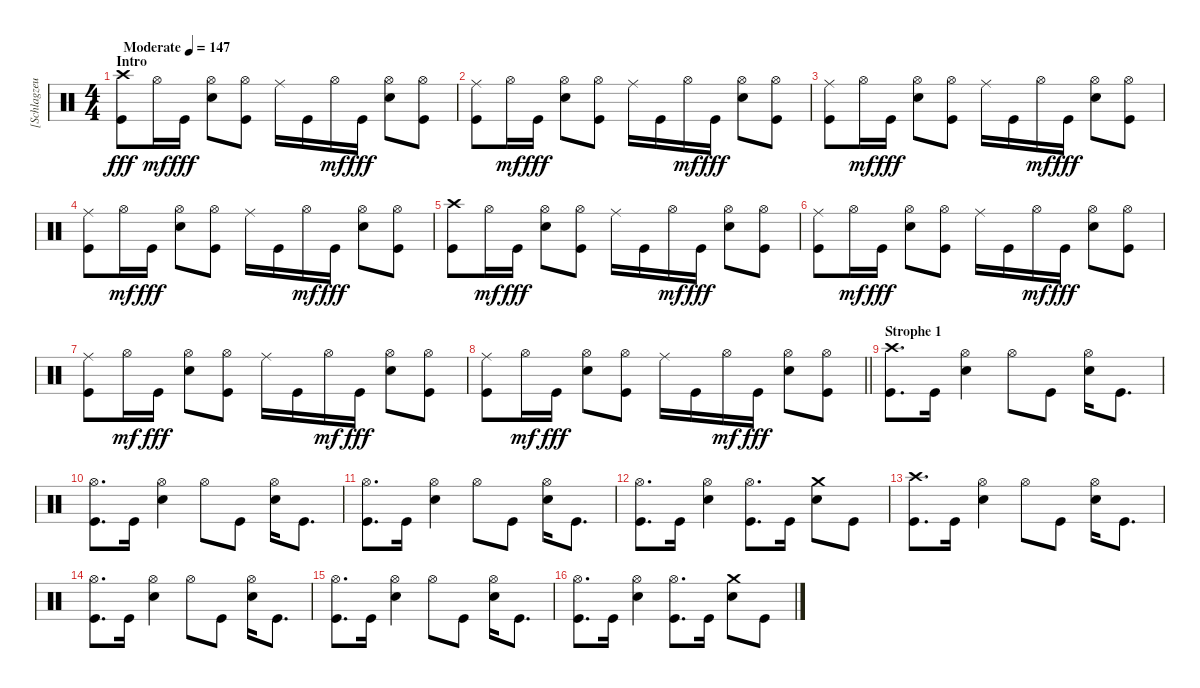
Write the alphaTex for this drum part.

\track ("[Schlagzeug]" "[Schlagzeu") {instrument percussion}
\staff {score}
\articulation defaults
\ts (4 4)
\section ("" "Intro")
\tempo (147 "Moderate")
\clef neutral
\ks c
("Crash high (hit)" "Kick (hit)").8{dy fff} "Hi-Hat (open)".16{dy mf} "Kick (hit)".16{dy fff} ("Hi-Hat (open)" "Electric Snare (hit)").8 ("Hi-Hat (open)" "Kick (hit)").8 "Ride (middle)".16 "Kick (hit)".16 "Hi-Hat (open)".16{dy mf} "Kick (hit)".16{dy fff} ("Hi-Hat (open)" "Electric Snare (hit)").8 ("Hi-Hat (open)" "Kick (hit)").8 |
("Ride (middle)" "Kick (hit)").8 "Hi-Hat (open)".16{dy mf} "Kick (hit)".16{dy fff} ("Hi-Hat (open)" "Electric Snare (hit)").8 ("Hi-Hat (open)" "Kick (hit)").8 "Ride (middle)".16 "Kick (hit)".16 "Hi-Hat (open)".16{dy mf} "Kick (hit)".16{dy fff} ("Hi-Hat (open)" "Electric Snare (hit)").8 ("Hi-Hat (open)" "Kick (hit)").8 |
("Ride (middle)" "Kick (hit)").8 "Hi-Hat (open)".16{dy mf} "Kick (hit)".16{dy fff} ("Hi-Hat (open)" "Electric Snare (hit)").8 ("Hi-Hat (open)" "Kick (hit)").8 "Ride (middle)".16 "Kick (hit)".16 "Hi-Hat (open)".16{dy mf} "Kick (hit)".16{dy fff} ("Hi-Hat (open)" "Electric Snare (hit)").8 ("Hi-Hat (open)" "Kick (hit)").8 |
("Ride (middle)" "Kick (hit)").8 "Hi-Hat (open)".16{dy mf} "Kick (hit)".16{dy fff} ("Hi-Hat (open)" "Electric Snare (hit)").8 ("Hi-Hat (open)" "Kick (hit)").8 "Ride (middle)".16 "Kick (hit)".16 "Hi-Hat (open)".16{dy mf} "Kick (hit)".16{dy fff} ("Hi-Hat (open)" "Electric Snare (hit)").8 ("Hi-Hat (open)" "Kick (hit)").8 |
("Crash high (hit)" "Kick (hit)").8 "Hi-Hat (open)".16{dy mf} "Kick (hit)".16{dy fff} ("Hi-Hat (open)" "Electric Snare (hit)").8 ("Hi-Hat (open)" "Kick (hit)").8 "Ride (middle)".16 "Kick (hit)".16 "Hi-Hat (open)".16{dy mf} "Kick (hit)".16{dy fff} ("Hi-Hat (open)" "Electric Snare (hit)").8 ("Hi-Hat (open)" "Kick (hit)").8 |
("Ride (middle)" "Kick (hit)").8 "Hi-Hat (open)".16{dy mf} "Kick (hit)".16{dy fff} ("Hi-Hat (open)" "Electric Snare (hit)").8 ("Hi-Hat (open)" "Kick (hit)").8 "Ride (middle)".16 "Kick (hit)".16 "Hi-Hat (open)".16{dy mf} "Kick (hit)".16{dy fff} ("Hi-Hat (open)" "Electric Snare (hit)").8 ("Hi-Hat (open)" "Kick (hit)").8 |
("Ride (middle)" "Kick (hit)").8 "Hi-Hat (open)".16{dy mf} "Kick (hit)".16{dy fff} ("Hi-Hat (open)" "Electric Snare (hit)").8 ("Hi-Hat (open)" "Kick (hit)").8 "Ride (middle)".16 "Kick (hit)".16 "Hi-Hat (open)".16{dy mf} "Kick (hit)".16{dy fff} ("Hi-Hat (open)" "Electric Snare (hit)").8 ("Hi-Hat (open)" "Kick (hit)").8 |
\barLineRight lightlight
("Ride (middle)" "Kick (hit)").8 "Hi-Hat (open)".16{dy mf} "Kick (hit)".16{dy fff} ("Hi-Hat (open)" "Electric Snare (hit)").8 ("Hi-Hat (open)" "Kick (hit)").8 "Ride (middle)".16 "Kick (hit)".16 "Hi-Hat (open)".16{dy mf} "Kick (hit)".16{dy fff} ("Hi-Hat (open)" "Electric Snare (hit)").8 ("Hi-Hat (open)" "Kick (hit)").8 |
\section ("" "Strophe 1")
("Crash high (hit)" "Kick (hit)").8{d} "Kick (hit)".16 ("Hi-Hat (open)" "Electric Snare (hit)").4 "Hi-Hat (open)".8 "Kick (hit)".8 ("Hi-Hat (open)" "Electric Snare (hit)").16 "Kick (hit)".8{d} |
("Hi-Hat (open)" "Kick (hit)").8{d} "Kick (hit)".16 ("Hi-Hat (open)" "Electric Snare (hit)").4 "Hi-Hat (open)".8 "Kick (hit)".8 ("Hi-Hat (open)" "Electric Snare (hit)").16 "Kick (hit)".8{d} |
("Hi-Hat (open)" "Kick (hit)").8{d} "Kick (hit)".16 ("Hi-Hat (open)" "Electric Snare (hit)").4 "Hi-Hat (open)".8 "Kick (hit)".8 ("Hi-Hat (open)" "Electric Snare (hit)").16 "Kick (hit)".8{d} |
("Hi-Hat (open)" "Kick (hit)").8{d} "Kick (hit)".16 ("Hi-Hat (open)" "Electric Snare (hit)").4 ("Hi-Hat (open)" "Kick (hit)").8{d} "Kick (hit)".16 ("Crash medium (hit)" "Electric Snare (hit)").8 "Kick (hit)".8 |
("Crash high (hit)" "Kick (hit)").8{d} "Kick (hit)".16 ("Hi-Hat (open)" "Electric Snare (hit)").4 "Hi-Hat (open)".8 "Kick (hit)".8 ("Hi-Hat (open)" "Electric Snare (hit)").16 "Kick (hit)".8{d} |
("Hi-Hat (open)" "Kick (hit)").8{d} "Kick (hit)".16 ("Hi-Hat (open)" "Electric Snare (hit)").4 "Hi-Hat (open)".8 "Kick (hit)".8 ("Hi-Hat (open)" "Electric Snare (hit)").16 "Kick (hit)".8{d} |
("Hi-Hat (open)" "Kick (hit)").8{d} "Kick (hit)".16 ("Hi-Hat (open)" "Electric Snare (hit)").4 "Hi-Hat (open)".8 "Kick (hit)".8 ("Hi-Hat (open)" "Electric Snare (hit)").16 "Kick (hit)".8{d} |
("Hi-Hat (open)" "Kick (hit)").8{d} "Kick (hit)".16 ("Hi-Hat (open)" "Electric Snare (hit)").4 ("Hi-Hat (open)" "Kick (hit)").8{d} "Kick (hit)".16 ("Crash medium (hit)" "Electric Snare (hit)").8 "Kick (hit)".8
